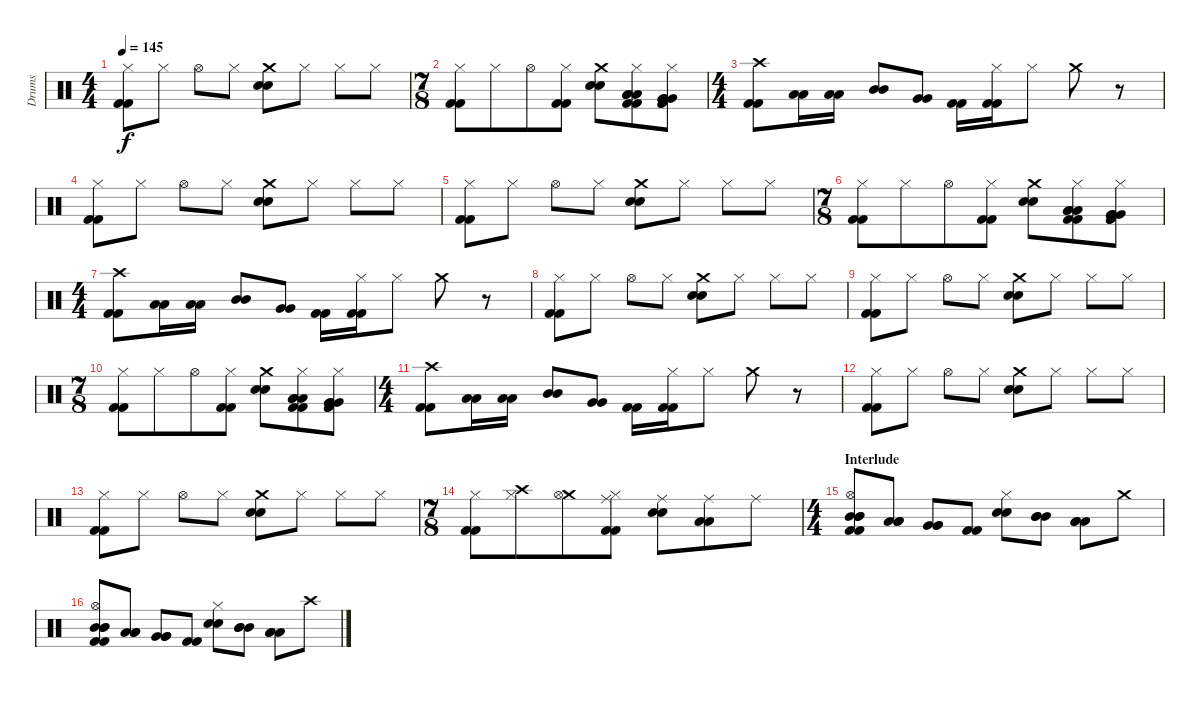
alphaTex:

\track ("Drums" "Drums") {instrument percussion}
\staff {score}
\articulation defaults
\ts (4 4)
\tempo 145
\clef neutral
\ks c
("Hi-Hat (closed)" "Kick (hit) 2" "Kick (hit) 2").8{dy f} "Hi-Hat (closed)".8 "Hi-Hat (open)".8 "Hi-Hat (closed)".8 ("Crash medium (hit)" "Snare (hit) 2" "Snare (hit) 2").8 "Hi-Hat (closed)".8 "Hi-Hat (closed)".8 "Hi-Hat (closed)".8 |
\ts (7 8)
("Hi-Hat (closed)" "Kick (hit) 2" "Kick (hit) 2").8 "Hi-Hat (closed)".8 "Hi-Hat (open)".8 ("Hi-Hat (closed)" "Kick (hit) 2" "Kick (hit) 2").8 ("Crash medium (hit)" "Snare (hit) 2" "Snare (hit) 2").8 ("Kick (hit) 2" "Kick (hit) 2" "Hi-Hat (closed)" "Low Tom (hit)" "Low Tom (hit)" "Low Tom (hit)").8 ("Kick (hit) 2" "Kick (hit) 2" "Hi-Hat (closed)" "Very Low Tom (hit)" "Very Low Tom (hit)" "Very Low Tom (hit)").8 |
\ts (4 4)
("Crash high (hit)" "Kick (hit) 2" "Kick (hit) 2").8 ("Low Tom (hit)" "Low Tom (hit)").16 ("Low Tom (hit)" "Low Tom (hit)").16 ("Mid Tom (hit)" "Mid Tom (hit)").8 ("Very Low Tom (hit)" "Very Low Tom (hit)").8 ("Kick (hit) 2" "Kick (hit) 2").16 ("Hi-Hat (closed)" "Kick (hit) 2" "Kick (hit) 2").16 "Hi-Hat (closed)".8 "Crash medium (hit)".8 r.8 |
("Hi-Hat (closed)" "Kick (hit) 2" "Kick (hit) 2").8 "Hi-Hat (closed)".8 "Hi-Hat (open)".8 "Hi-Hat (closed)".8 ("Crash medium (hit)" "Snare (hit) 2" "Snare (hit) 2").8 "Hi-Hat (closed)".8 "Hi-Hat (closed)".8 "Hi-Hat (closed)".8 |
("Hi-Hat (closed)" "Kick (hit) 2" "Kick (hit) 2").8 "Hi-Hat (closed)".8 "Hi-Hat (open)".8 "Hi-Hat (closed)".8 ("Crash medium (hit)" "Snare (hit) 2" "Snare (hit) 2").8 "Hi-Hat (closed)".8 "Hi-Hat (closed)".8 "Hi-Hat (closed)".8 |
\ts (7 8)
("Hi-Hat (closed)" "Kick (hit) 2" "Kick (hit) 2").8 "Hi-Hat (closed)".8 "Hi-Hat (open)".8 ("Hi-Hat (closed)" "Kick (hit) 2" "Kick (hit) 2").8 ("Crash medium (hit)" "Snare (hit) 2" "Snare (hit) 2").8 ("Kick (hit) 2" "Kick (hit) 2" "Hi-Hat (closed)" "Low Tom (hit)" "Low Tom (hit)" "Low Tom (hit)").8 ("Kick (hit) 2" "Kick (hit) 2" "Hi-Hat (closed)" "Very Low Tom (hit)" "Very Low Tom (hit)" "Very Low Tom (hit)").8 |
\ts (4 4)
("Crash high (hit)" "Kick (hit) 2" "Kick (hit) 2").8 ("Low Tom (hit)" "Low Tom (hit)").16 ("Low Tom (hit)" "Low Tom (hit)").16 ("Mid Tom (hit)" "Mid Tom (hit)").8 ("Very Low Tom (hit)" "Very Low Tom (hit)").8 ("Kick (hit) 2" "Kick (hit) 2").16 ("Hi-Hat (closed)" "Kick (hit) 2" "Kick (hit) 2").16 "Hi-Hat (closed)".8 "Crash medium (hit)".8 r.8 |
("Hi-Hat (closed)" "Kick (hit) 2" "Kick (hit) 2").8 "Hi-Hat (closed)".8 "Hi-Hat (open)".8 "Hi-Hat (closed)".8 ("Crash medium (hit)" "Snare (hit) 2" "Snare (hit) 2").8 "Hi-Hat (closed)".8 "Hi-Hat (closed)".8 "Hi-Hat (closed)".8 |
("Hi-Hat (closed)" "Kick (hit) 2" "Kick (hit) 2").8 "Hi-Hat (closed)".8 "Hi-Hat (open)".8 "Hi-Hat (closed)".8 ("Crash medium (hit)" "Snare (hit) 2" "Snare (hit) 2").8 "Hi-Hat (closed)".8 "Hi-Hat (closed)".8 "Hi-Hat (closed)".8 |
\ts (7 8)
("Hi-Hat (closed)" "Kick (hit) 2" "Kick (hit) 2").8 "Hi-Hat (closed)".8 "Hi-Hat (open)".8 ("Hi-Hat (closed)" "Kick (hit) 2" "Kick (hit) 2").8 ("Crash medium (hit)" "Snare (hit) 2" "Snare (hit) 2").8 ("Kick (hit) 2" "Kick (hit) 2" "Hi-Hat (closed)" "Low Tom (hit)" "Low Tom (hit)" "Low Tom (hit)").8 ("Kick (hit) 2" "Kick (hit) 2" "Hi-Hat (closed)" "Very Low Tom (hit)" "Very Low Tom (hit)" "Very Low Tom (hit)").8 |
\ts (4 4)
("Crash high (hit)" "Kick (hit) 2" "Kick (hit) 2").8 ("Low Tom (hit)" "Low Tom (hit)").16 ("Low Tom (hit)" "Low Tom (hit)").16 ("Mid Tom (hit)" "Mid Tom (hit)").8 ("Very Low Tom (hit)" "Very Low Tom (hit)").8 ("Kick (hit) 2" "Kick (hit) 2").16 ("Hi-Hat (closed)" "Kick (hit) 2" "Kick (hit) 2").16 "Hi-Hat (closed)".8 "Crash medium (hit)".8 r.8 |
("Hi-Hat (closed)" "Kick (hit) 2" "Kick (hit) 2").8 "Hi-Hat (closed)".8 "Hi-Hat (open)".8 "Hi-Hat (closed)".8 ("Crash medium (hit)" "Snare (hit) 2" "Snare (hit) 2").8 "Hi-Hat (closed)".8 "Hi-Hat (closed)".8 "Hi-Hat (closed)".8 |
("Hi-Hat (closed)" "Kick (hit) 2" "Kick (hit) 2").8 "Hi-Hat (closed)".8 "Hi-Hat (open)".8 "Hi-Hat (closed)".8 ("Crash medium (hit)" "Snare (hit) 2" "Snare (hit) 2").8 "Hi-Hat (closed)".8 "Hi-Hat (closed)".8 "Hi-Hat (closed)".8 |
\ts (7 8)
("Hi-Hat (closed)" "Kick (hit) 2" "Kick (hit) 2").8 ("Crash high (hit)" "Hi-Hat (closed)").8 ("Crash medium (hit)" "Hi-Hat (open)").8 ("Ride (middle)" "Hi-Hat (closed)" "Kick (hit) 2" "Kick (hit) 2").8 ("Ride (middle)" "Snare (hit) 2" "Snare (hit) 2").8 ("Ride (middle)" "Low Tom (hit)" "Low Tom (hit)").8 "Ride (middle)".8 |
\ts (4 4)
\section ("" "Interlude")
("Hi-Hat (open)" "Mid Tom (hit)" "Mid Tom (hit)" "Mid Tom (hit)" "Kick (hit) 2" "Kick (hit) 2").8{volume 13} ("Low Tom (hit)" "Low Tom (hit)" "Low Tom (hit)").8 ("Very Low Tom (hit)" "Very Low Tom (hit)" "Very Low Tom (hit)").8 ("Kick (hit) 2" "Kick (hit) 2").8 ("Hi-Hat (closed)" "Snare (hit) 2" "Snare (hit) 2").8 ("Mid Tom (hit)" "Mid Tom (hit)" "Mid Tom (hit)").8 ("Low Tom (hit)" "Low Tom (hit)" "Low Tom (hit)").8 "Crash medium (hit)".8 |
("Hi-Hat (open)" "Mid Tom (hit)" "Mid Tom (hit)" "Mid Tom (hit)" "Kick (hit) 2" "Kick (hit) 2").8 ("Low Tom (hit)" "Low Tom (hit)" "Low Tom (hit)").8 ("Very Low Tom (hit)" "Very Low Tom (hit)" "Very Low Tom (hit)").8 ("Kick (hit) 2" "Kick (hit) 2").8 ("Hi-Hat (closed)" "Snare (hit) 2" "Snare (hit) 2").8 ("Mid Tom (hit)" "Mid Tom (hit)" "Mid Tom (hit)").8 ("Low Tom (hit)" "Low Tom (hit)" "Low Tom (hit)").8 "Crash high (hit)".8
